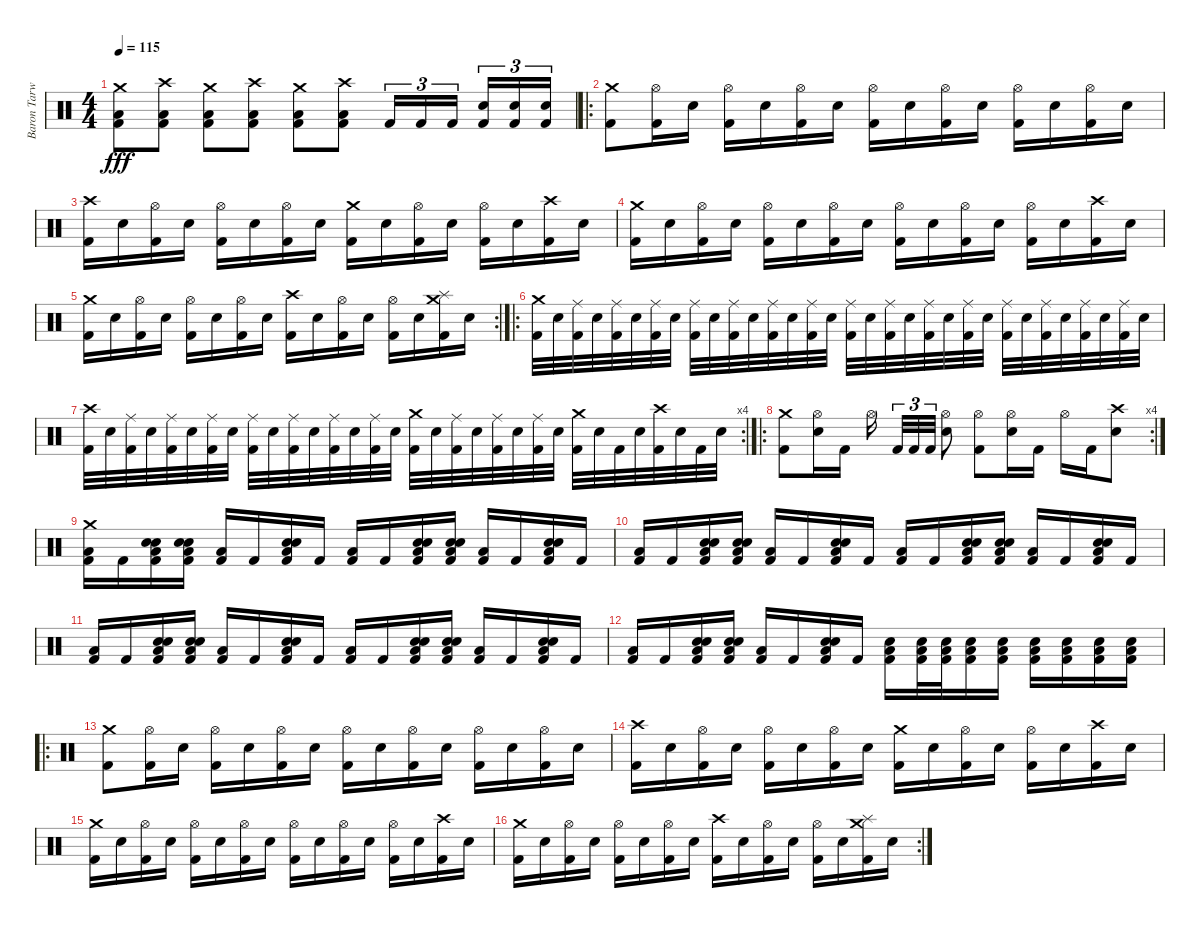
\track ("Baron Tarwonen" "Baron Tarw") {instrument percussion}
\staff {score}
\articulation defaults
\ts (4 4)
\tempo 115
\clef neutral
\ks c
("Crash medium (hit)" "Low Floor Tom (hit)" "Kick (hit) 2").8{dy fff} ("Crash high (hit)" "Low Floor Tom (hit)" "Kick (hit) 2").8 ("Crash medium (hit)" "Low Floor Tom (hit)" "Kick (hit) 2").8 ("Crash high (hit)" "Low Floor Tom (hit)" "Kick (hit) 2").8 ("Crash medium (hit)" "Low Floor Tom (hit)" "Kick (hit) 2").8 ("Crash high (hit)" "Low Floor Tom (hit)" "Kick (hit) 2").8 "Kick (hit) 2".16{tu (3 2)} "Kick (hit) 2".16{tu (3 2)} "Kick (hit) 2".16{tu (3 2)} ("Snare (hit) 2" "Kick (hit) 2").16{tu (3 2)} ("Snare (hit) 2" "Kick (hit) 2").16{tu (3 2)} ("Snare (hit) 2" "Kick (hit) 2").16{tu (3 2)} |
\ro
("Crash medium (hit)" "Kick (hit) 2").8 ("Hi-Hat (open)" "Kick (hit) 2").16 "Snare (hit) 2".16 ("Hi-Hat (open)" "Kick (hit) 2").16 "Snare (hit) 2".16 ("Hi-Hat (open)" "Kick (hit) 2").16 "Snare (hit) 2".16 ("Hi-Hat (open)" "Kick (hit) 2").16 "Snare (hit) 2".16 ("Hi-Hat (open)" "Kick (hit) 2").16 "Snare (hit) 2".16 ("Hi-Hat (open)" "Kick (hit) 2").16 "Snare (hit) 2".16 ("Hi-Hat (open)" "Kick (hit) 2").16 "Snare (hit) 2".16 |
("Crash high (hit)" "Kick (hit) 2").16 "Snare (hit) 2".16 ("Hi-Hat (open)" "Kick (hit) 2").16 "Snare (hit) 2".16 ("Hi-Hat (open)" "Kick (hit) 2").16 "Snare (hit) 2".16 ("Hi-Hat (open)" "Kick (hit) 2").16 "Snare (hit) 2".16 ("Crash medium (hit)" "Kick (hit) 2").16 "Snare (hit) 2".16 ("Hi-Hat (open)" "Kick (hit) 2").16 "Snare (hit) 2".16 ("Hi-Hat (open)" "Kick (hit) 2").16 "Snare (hit) 2".16 ("Crash high (hit)" "Kick (hit) 2").16 "Snare (hit) 2".16 |
("Crash medium (hit)" "Kick (hit) 2").16 "Snare (hit) 2".16 ("Hi-Hat (open)" "Kick (hit) 2").16 "Snare (hit) 2".16 ("Hi-Hat (open)" "Kick (hit) 2").16 "Snare (hit) 2".16 ("Hi-Hat (open)" "Kick (hit) 2").16 "Snare (hit) 2".16 ("Hi-Hat (open)" "Kick (hit) 2").16 "Snare (hit) 2".16 ("Hi-Hat (open)" "Kick (hit) 2").16 "Snare (hit) 2".16 ("Hi-Hat (open)" "Kick (hit) 2").16 "Snare (hit) 2".16 ("Crash high (hit)" "Kick (hit) 2").16 "Snare (hit) 2".16 |
\rc 2
("Crash medium (hit)" "Kick (hit) 2").16 "Snare (hit) 2".16 ("Hi-Hat (open)" "Kick (hit) 2").16 "Snare (hit) 2".16 ("Hi-Hat (open)" "Kick (hit) 2").16 "Snare (hit) 2".16 ("Hi-Hat (open)" "Kick (hit) 2").16 "Snare (hit) 2".16 ("Crash high (hit)" "Kick (hit) 2").16 "Snare (hit) 2".16 ("Hi-Hat (open)" "Kick (hit) 2").16 "Snare (hit) 2".16 ("Hi-Hat (open)" "Kick (hit) 2").16 "Snare (hit) 2".16 ("Splash (hit)" "Crash medium (hit)" "Kick (hit) 2").16 "Snare (hit) 2".16 |
\ro
("Crash medium (hit)" "Kick (hit) 2").32{volume 16 balance 12} "Snare (hit) 2".32 ("Ride (middle)" "Kick (hit) 2").32 "Snare (hit) 2".32 ("Ride (middle)" "Kick (hit) 2").32 "Snare (hit) 2".32 ("Ride (middle)" "Kick (hit) 2").32 "Snare (hit) 2".32 ("Ride (middle)" "Kick (hit) 2").32 "Snare (hit) 2".32 ("Ride (middle)" "Kick (hit) 2").32 "Snare (hit) 2".32 ("Ride (middle)" "Kick (hit) 2").32 "Snare (hit) 2".32 ("Ride (middle)" "Kick (hit) 2").32 "Snare (hit) 2".32 ("Ride (middle)" "Kick (hit) 2").32 "Snare (hit) 2".32 ("Ride (middle)" "Kick (hit) 2").32 "Snare (hit) 2".32 ("Ride (middle)" "Kick (hit) 2").32 "Snare (hit) 2".32 ("Ride (middle)" "Kick (hit) 2").32 "Snare (hit) 2".32 ("Ride (middle)" "Kick (hit) 2").32 "Snare (hit) 2".32 ("Ride (middle)" "Kick (hit) 2").32 "Snare (hit) 2".32 ("Ride (middle)" "Kick (hit) 2").32 "Snare (hit) 2".32 ("Ride (middle)" "Kick (hit) 2").32 "Snare (hit) 2".32 |
\rc 4
("Crash high (hit)" "Kick (hit) 2").32 "Snare (hit) 2".32 ("Ride (middle)" "Kick (hit) 2").32 "Snare (hit) 2".32 ("Ride (middle)" "Kick (hit) 2").32 "Snare (hit) 2".32 ("Ride (middle)" "Kick (hit) 2").32 "Snare (hit) 2".32 ("Ride (middle)" "Kick (hit) 2").32 "Snare (hit) 2".32 ("Ride (middle)" "Kick (hit) 2").32 "Snare (hit) 2".32 ("Ride (middle)" "Kick (hit) 2").32 "Snare (hit) 2".32 ("Ride (middle)" "Kick (hit) 2").32 "Snare (hit) 2".32 ("Crash medium (hit)" "Kick (hit) 2").32 "Snare (hit) 2".32 ("Ride (middle)" "Kick (hit) 2").32 "Snare (hit) 2".32 ("Ride (middle)" "Kick (hit) 2").32 "Snare (hit) 2".32 ("Ride (middle)" "Kick (hit) 2").32 "Snare (hit) 2".32 ("Crash medium (hit)" "Kick (hit) 2").32 "Snare (hit) 2".32 "Kick (hit) 2".32 "Snare (hit) 2".32 ("Crash high (hit)" "Kick (hit) 2").32 "Snare (hit) 2".32 "Kick (hit) 2".32 "Snare (hit) 2".32 |
\ro
\rc 4
("Crash medium (hit)" "Kick (hit) 2").8 ("Hi-Hat (open)" "Snare (hit) 2").16 "Kick (hit) 2".16 "Hi-Hat (open)".16 "Kick (hit) 2".32{tu (3 2)} "Kick (hit) 2".32{tu (3 2)} "Kick (hit) 2".32{tu (3 2)} ("Hi-Hat (open)" "Snare (hit) 2").8 ("Hi-Hat (open)" "Kick (hit) 2").8 ("Hi-Hat (open)" "Snare (hit) 2").16 "Kick (hit) 2".16 "Hi-Hat (open)".16 "Kick (hit) 2".16 ("Crash high (hit)" "Snare (hit) 2").8 |
("Crash medium (hit)" "Low Floor Tom (hit)" "Kick (hit) 2").16{volume 16 balance 16} "Kick (hit) 2".16 ("Snare (hit) 2" "Hand Clap (hit)" "Low Floor Tom (hit)" "Kick (hit) 2").16 ("Snare (hit) 2" "Hand Clap (hit)" "Low Floor Tom (hit)" "Kick (hit) 2").16 ("Low Floor Tom (hit)" "Kick (hit) 2").16 "Kick (hit) 2".16 ("Snare (hit) 2" "Hand Clap (hit)" "Low Floor Tom (hit)" "Kick (hit) 2").16 "Kick (hit) 2".16 ("Low Floor Tom (hit)" "Kick (hit) 2").16 "Kick (hit) 2".16 ("Snare (hit) 2" "Hand Clap (hit)" "Low Floor Tom (hit)" "Kick (hit) 2").16 ("Snare (hit) 2" "Hand Clap (hit)" "Low Floor Tom (hit)" "Kick (hit) 2").16 ("Low Floor Tom (hit)" "Kick (hit) 2").16 "Kick (hit) 2".16 ("Snare (hit) 2" "Hand Clap (hit)" "Low Floor Tom (hit)" "Kick (hit) 2").16 "Kick (hit) 2".16 |
("Low Floor Tom (hit)" "Kick (hit) 2").16 "Kick (hit) 2".16 ("Snare (hit) 2" "Hand Clap (hit)" "Low Floor Tom (hit)" "Kick (hit) 2").16 ("Snare (hit) 2" "Hand Clap (hit)" "Low Floor Tom (hit)" "Kick (hit) 2").16 ("Low Floor Tom (hit)" "Kick (hit) 2").16 "Kick (hit) 2".16 ("Snare (hit) 2" "Hand Clap (hit)" "Low Floor Tom (hit)" "Kick (hit) 2").16 "Kick (hit) 2".16 ("Low Floor Tom (hit)" "Kick (hit) 2").16 "Kick (hit) 2".16 ("Snare (hit) 2" "Hand Clap (hit)" "Low Floor Tom (hit)" "Kick (hit) 2").16 ("Snare (hit) 2" "Hand Clap (hit)" "Low Floor Tom (hit)" "Kick (hit) 2").16 ("Low Floor Tom (hit)" "Kick (hit) 2").16 "Kick (hit) 2".16 ("Snare (hit) 2" "Hand Clap (hit)" "Low Floor Tom (hit)" "Kick (hit) 2").16 "Kick (hit) 2".16 |
("Low Floor Tom (hit)" "Kick (hit) 2").16 "Kick (hit) 2".16 ("Snare (hit) 2" "Hand Clap (hit)" "Low Floor Tom (hit)" "Kick (hit) 2").16 ("Snare (hit) 2" "Hand Clap (hit)" "Low Floor Tom (hit)" "Kick (hit) 2").16 ("Low Floor Tom (hit)" "Kick (hit) 2").16 "Kick (hit) 2".16 ("Snare (hit) 2" "Hand Clap (hit)" "Low Floor Tom (hit)" "Kick (hit) 2").16 "Kick (hit) 2".16 ("Low Floor Tom (hit)" "Kick (hit) 2").16 "Kick (hit) 2".16 ("Snare (hit) 2" "Hand Clap (hit)" "Low Floor Tom (hit)" "Kick (hit) 2").16 ("Snare (hit) 2" "Hand Clap (hit)" "Low Floor Tom (hit)" "Kick (hit) 2").16 ("Low Floor Tom (hit)" "Kick (hit) 2").16 "Kick (hit) 2".16 ("Snare (hit) 2" "Hand Clap (hit)" "Low Floor Tom (hit)" "Kick (hit) 2").16 "Kick (hit) 2".16 |
("Low Floor Tom (hit)" "Kick (hit) 2").16 "Kick (hit) 2".16 ("Snare (hit) 2" "Hand Clap (hit)" "Low Floor Tom (hit)" "Kick (hit) 2").16 ("Snare (hit) 2" "Hand Clap (hit)" "Low Floor Tom (hit)" "Kick (hit) 2").16 ("Low Floor Tom (hit)" "Kick (hit) 2").16 "Kick (hit) 2".16 ("Snare (hit) 2" "Hand Clap (hit)" "Low Floor Tom (hit)" "Kick (hit) 2").16 "Kick (hit) 2".16 ("Snare (hit) 2" "Low Floor Tom (hit)" "Kick (hit) 2").16 ("Snare (hit) 2" "Low Floor Tom (hit)" "Kick (hit) 2").32 ("Snare (hit) 2" "Low Floor Tom (hit)" "Kick (hit) 2").32 ("Snare (hit) 2" "Low Floor Tom (hit)" "Kick (hit) 2").16 ("Snare (hit) 2" "Low Floor Tom (hit)" "Kick (hit) 2").16 ("Snare (hit) 2" "Low Floor Tom (hit)" "Kick (hit) 2").16 ("Snare (hit) 2" "Low Floor Tom (hit)" "Kick (hit) 2").16 ("Snare (hit) 2" "Low Floor Tom (hit)" "Kick (hit) 2").16 ("Snare (hit) 2" "Low Floor Tom (hit)" "Kick (hit) 2").16 |
\ro
("Crash medium (hit)" "Kick (hit) 2").8{volume 16 balance 8} ("Hi-Hat (open)" "Kick (hit) 2").16 "Snare (hit) 2".16 ("Hi-Hat (open)" "Kick (hit) 2").16 "Snare (hit) 2".16 ("Hi-Hat (open)" "Kick (hit) 2").16 "Snare (hit) 2".16 ("Hi-Hat (open)" "Kick (hit) 2").16 "Snare (hit) 2".16 ("Hi-Hat (open)" "Kick (hit) 2").16 "Snare (hit) 2".16 ("Hi-Hat (open)" "Kick (hit) 2").16 "Snare (hit) 2".16 ("Hi-Hat (open)" "Kick (hit) 2").16 "Snare (hit) 2".16 |
("Crash high (hit)" "Kick (hit) 2").16 "Snare (hit) 2".16 ("Hi-Hat (open)" "Kick (hit) 2").16 "Snare (hit) 2".16 ("Hi-Hat (open)" "Kick (hit) 2").16 "Snare (hit) 2".16 ("Hi-Hat (open)" "Kick (hit) 2").16 "Snare (hit) 2".16 ("Crash medium (hit)" "Kick (hit) 2").16 "Snare (hit) 2".16 ("Hi-Hat (open)" "Kick (hit) 2").16 "Snare (hit) 2".16 ("Hi-Hat (open)" "Kick (hit) 2").16 "Snare (hit) 2".16 ("Crash high (hit)" "Kick (hit) 2").16 "Snare (hit) 2".16 |
("Crash medium (hit)" "Kick (hit) 2").16 "Snare (hit) 2".16 ("Hi-Hat (open)" "Kick (hit) 2").16 "Snare (hit) 2".16 ("Hi-Hat (open)" "Kick (hit) 2").16 "Snare (hit) 2".16 ("Hi-Hat (open)" "Kick (hit) 2").16 "Snare (hit) 2".16 ("Hi-Hat (open)" "Kick (hit) 2").16 "Snare (hit) 2".16 ("Hi-Hat (open)" "Kick (hit) 2").16 "Snare (hit) 2".16 ("Hi-Hat (open)" "Kick (hit) 2").16 "Snare (hit) 2".16 ("Crash high (hit)" "Kick (hit) 2").16 "Snare (hit) 2".16 |
\rc 2
("Crash medium (hit)" "Kick (hit) 2").16 "Snare (hit) 2".16 ("Hi-Hat (open)" "Kick (hit) 2").16 "Snare (hit) 2".16 ("Hi-Hat (open)" "Kick (hit) 2").16 "Snare (hit) 2".16 ("Hi-Hat (open)" "Kick (hit) 2").16 "Snare (hit) 2".16 ("Crash high (hit)" "Kick (hit) 2").16 "Snare (hit) 2".16 ("Hi-Hat (open)" "Kick (hit) 2").16 "Snare (hit) 2".16 ("Hi-Hat (open)" "Kick (hit) 2").16 "Snare (hit) 2".16 ("Splash (hit)" "Crash medium (hit)" "Kick (hit) 2").16 "Snare (hit) 2".16
